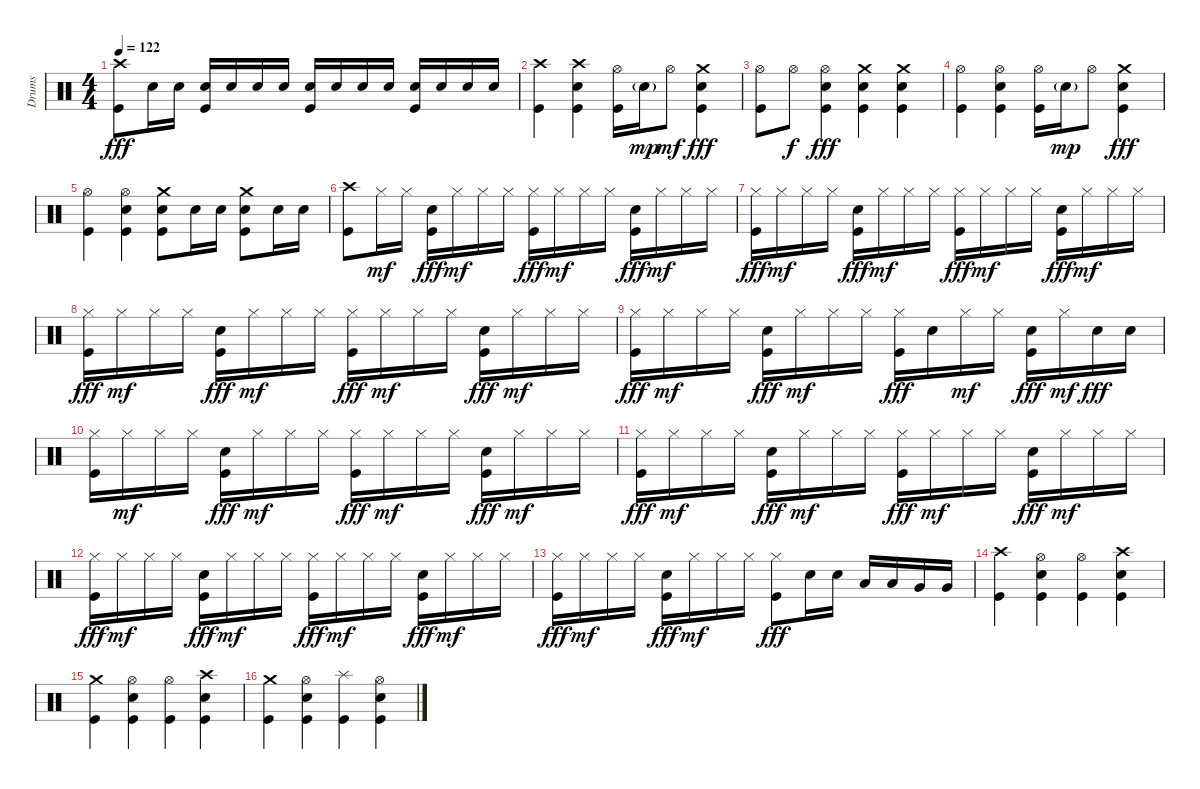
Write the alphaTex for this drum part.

\track ("Drums" "Drums") {instrument percussion}
\staff {score}
\articulation defaults
\ts (4 4)
\tempo 122
\clef neutral
\ks c
("Crash high (hit)" "Kick (hit)").8{dy fff} "Snare (hit) 2".16 "Snare (hit) 2".16 ("Snare (hit) 2" "Kick (hit)").16 "Snare (hit) 2".16 "Snare (hit) 2".16 "Snare (hit) 2".16 ("Snare (hit) 2" "Kick (hit)").16 "Snare (hit) 2".16 "Snare (hit) 2".16 "Snare (hit) 2".16 ("Snare (hit) 2" "Kick (hit)").16 "Snare (hit) 2".16 "Snare (hit) 2".16 "Snare (hit) 2".16 |
("Crash high (hit)" "Kick (hit)").4 ("Crash high (hit)" "Snare (hit) 2" "Kick (hit)").4 ("Hi-Hat (open)" "Kick (hit)").16 "Snare (hit) 2"{g}.16{dy mp} "Hi-Hat (open)".8{dy mf} ("Crash medium (hit)" "Snare (hit) 2" "Kick (hit)").4{dy fff} |
("Hi-Hat (open)" "Kick (hit)").8 "Hi-Hat (open)".8{dy f} ("Hi-Hat (open)" "Snare (hit) 2" "Kick (hit)").4{dy fff} ("Crash medium (hit)" "Snare (hit) 2" "Kick (hit)").4 ("Crash medium (hit)" "Snare (hit) 2" "Kick (hit)").4 |
("Hi-Hat (open)" "Kick (hit)").4 ("Hi-Hat (open)" "Snare (hit) 2" "Kick (hit)").4 ("Hi-Hat (open)" "Kick (hit)").16 "Snare (hit) 2"{g}.16{dy mp} "Hi-Hat (open)".8 ("Crash medium (hit)" "Snare (hit) 2" "Kick (hit)").4{dy fff} |
("Hi-Hat (open)" "Kick (hit)").4 ("Hi-Hat (open)" "Snare (hit) 2" "Kick (hit)").4 ("Crash medium (hit)" "Snare (hit) 2" "Kick (hit)").8 "Snare (hit) 2".16 "Snare (hit) 2".16 ("Crash medium (hit)" "Snare (hit) 2" "Kick (hit)").8 "Snare (hit) 2".16 "Snare (hit) 2".16 |
("Crash high (hit)" "Kick (hit)").8 "Hi-Hat (closed)".16{dy mf} "Hi-Hat (closed)".16 ("Snare (hit) 2" "Kick (hit)").16{dy fff} "Hi-Hat (closed)".16{dy mf} "Hi-Hat (closed)".16 "Hi-Hat (closed)".16 ("Hi-Hat (closed)" "Kick (hit)").16{dy fff} "Hi-Hat (closed)".16{dy mf} "Hi-Hat (closed)".16 "Hi-Hat (closed)".16 ("Snare (hit) 2" "Kick (hit)").16{dy fff} "Hi-Hat (closed)".16{dy mf} "Hi-Hat (closed)".16 "Hi-Hat (closed)".16 |
("Hi-Hat (closed)" "Kick (hit)").16{dy fff} "Hi-Hat (closed)".16{dy mf} "Hi-Hat (closed)".16 "Hi-Hat (closed)".16 ("Snare (hit) 2" "Kick (hit)").16{dy fff} "Hi-Hat (closed)".16{dy mf} "Hi-Hat (closed)".16 "Hi-Hat (closed)".16 ("Hi-Hat (closed)" "Kick (hit)").16{dy fff} "Hi-Hat (closed)".16{dy mf} "Hi-Hat (closed)".16 "Hi-Hat (closed)".16 ("Snare (hit) 2" "Kick (hit)").16{dy fff} "Hi-Hat (closed)".16{dy mf} "Hi-Hat (closed)".16 "Hi-Hat (closed)".16 |
("Hi-Hat (closed)" "Kick (hit)").16{dy fff} "Hi-Hat (closed)".16{dy mf} "Hi-Hat (closed)".16 "Hi-Hat (closed)".16 ("Snare (hit) 2" "Kick (hit)").16{dy fff} "Hi-Hat (closed)".16{dy mf} "Hi-Hat (closed)".16 "Hi-Hat (closed)".16 ("Hi-Hat (closed)" "Kick (hit)").16{dy fff} "Hi-Hat (closed)".16{dy mf} "Hi-Hat (closed)".16 "Hi-Hat (closed)".16 ("Snare (hit) 2" "Kick (hit)").16{dy fff} "Hi-Hat (closed)".16{dy mf} "Hi-Hat (closed)".16 "Hi-Hat (closed)".16 |
("Hi-Hat (closed)" "Kick (hit)").16{dy fff} "Hi-Hat (closed)".16{dy mf} "Hi-Hat (closed)".16 "Hi-Hat (closed)".16 ("Snare (hit) 2" "Kick (hit)").16{dy fff} "Hi-Hat (closed)".16{dy mf} "Hi-Hat (closed)".16 "Hi-Hat (closed)".16 ("Hi-Hat (closed)" "Kick (hit)").16{dy fff} "Snare (hit) 2".16 "Hi-Hat (closed)".16{dy mf} "Hi-Hat (closed)".16 ("Snare (hit) 2" "Kick (hit)").16{dy fff} "Hi-Hat (closed)".16{dy mf} "Snare (hit) 2".16{dy fff} "Snare (hit) 2".16 |
("Hi-Hat (closed)" "Kick (hit)").16 "Hi-Hat (closed)".16{dy mf} "Hi-Hat (closed)".16 "Hi-Hat (closed)".16 ("Snare (hit) 2" "Kick (hit)").16{dy fff} "Hi-Hat (closed)".16{dy mf} "Hi-Hat (closed)".16 "Hi-Hat (closed)".16 ("Hi-Hat (closed)" "Kick (hit)").16{dy fff} "Hi-Hat (closed)".16{dy mf} "Hi-Hat (closed)".16 "Hi-Hat (closed)".16 ("Snare (hit) 2" "Kick (hit)").16{dy fff} "Hi-Hat (closed)".16{dy mf} "Hi-Hat (closed)".16 "Hi-Hat (closed)".16 |
("Hi-Hat (closed)" "Kick (hit)").16{dy fff} "Hi-Hat (closed)".16{dy mf} "Hi-Hat (closed)".16 "Hi-Hat (closed)".16 ("Snare (hit) 2" "Kick (hit)").16{dy fff} "Hi-Hat (closed)".16{dy mf} "Hi-Hat (closed)".16 "Hi-Hat (closed)".16 ("Hi-Hat (closed)" "Kick (hit)").16{dy fff} "Hi-Hat (closed)".16{dy mf} "Hi-Hat (closed)".16 "Hi-Hat (closed)".16 ("Snare (hit) 2" "Kick (hit)").16{dy fff} "Hi-Hat (closed)".16{dy mf} "Hi-Hat (closed)".16 "Hi-Hat (closed)".16 |
("Hi-Hat (closed)" "Kick (hit)").16{dy fff} "Hi-Hat (closed)".16{dy mf} "Hi-Hat (closed)".16 "Hi-Hat (closed)".16 ("Snare (hit) 2" "Kick (hit)").16{dy fff} "Hi-Hat (closed)".16{dy mf} "Hi-Hat (closed)".16 "Hi-Hat (closed)".16 ("Hi-Hat (closed)" "Kick (hit)").16{dy fff} "Hi-Hat (closed)".16{dy mf} "Hi-Hat (closed)".16 "Hi-Hat (closed)".16 ("Snare (hit) 2" "Kick (hit)").16{dy fff} "Hi-Hat (closed)".16{dy mf} "Hi-Hat (closed)".16 "Hi-Hat (closed)".16 |
("Hi-Hat (closed)" "Kick (hit)").16{dy fff} "Hi-Hat (closed)".16{dy mf} "Hi-Hat (closed)".16 "Hi-Hat (closed)".16 ("Snare (hit) 2" "Kick (hit)").16{dy fff} "Hi-Hat (closed)".16{dy mf} "Hi-Hat (closed)".16 "Hi-Hat (closed)".16 ("Hi-Hat (closed)" "Kick (hit)").8{dy fff} "Snare (hit) 2".16 "Snare (hit) 2".16 "Low Tom (hit)".16 "Low Tom (hit)".16 "Very Low Tom (hit)".16 "Very Low Tom (hit)".16 |
("Crash high (hit)" "Kick (hit)").4 ("Hi-Hat (open)" "Snare (hit) 2" "Kick (hit)").4 ("Hi-Hat (open)" "Kick (hit)").4 ("Crash high (hit)" "Snare (hit) 2" "Kick (hit)").4 |
("Crash medium (hit)" "Kick (hit)").4 ("Hi-Hat (open)" "Snare (hit) 2" "Kick (hit)").4 ("Hi-Hat (open)" "Kick (hit)").4 ("Crash high (hit)" "Snare (hit) 2" "Kick (hit)").4 |
("Crash medium (hit)" "Kick (hit)").4 ("Hi-Hat (open)" "Snare (hit) 2" "Kick (hit)").4 ("Splash (hit)" "Kick (hit)").4 ("Hi-Hat (open)" "Snare (hit) 2" "Kick (hit)").4
